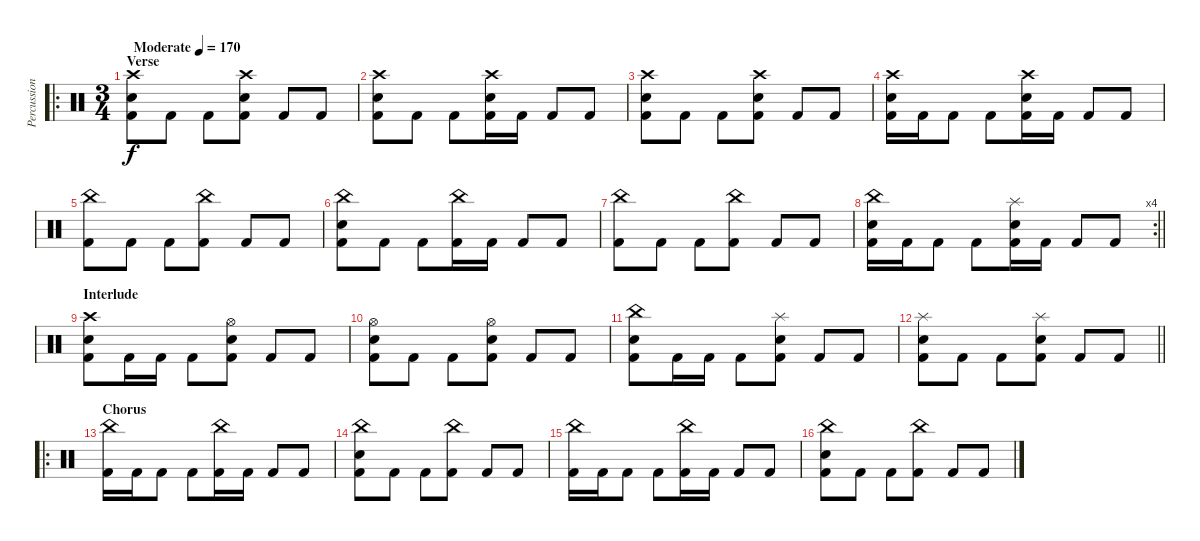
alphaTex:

\track ("Percussion" "Percussion") {instrument percussion}
\staff {score}
\articulation defaults
\ro
\ts (3 4)
\section ("" "Verse")
\tempo (170 "Moderate")
\clef neutral
\ks c
("Crash high (hit)" "Electric Snare (hit)" "Kick (hit) 2").8{dy f} "Kick (hit) 2".8 "Kick (hit) 2".8 ("Crash high (hit)" "Electric Snare (hit)" "Kick (hit) 2").8 "Kick (hit) 2".8 "Kick (hit) 2".8 |
("Crash high (hit)" "Electric Snare (hit)" "Kick (hit) 2").8 "Kick (hit) 2".8 "Kick (hit) 2".8 ("Crash high (hit)" "Electric Snare (hit)" "Kick (hit) 2").16 "Kick (hit) 2".16 "Kick (hit) 2".8 "Kick (hit) 2".8 |
("Crash high (hit)" "Electric Snare (hit)" "Kick (hit) 2").8 "Kick (hit) 2".8 "Kick (hit) 2".8 ("Crash high (hit)" "Electric Snare (hit)" "Kick (hit) 2").8 "Kick (hit) 2".8 "Kick (hit) 2".8 |
("Crash high (hit)" "Electric Snare (hit)" "Kick (hit) 2").16 "Kick (hit) 2".16 "Kick (hit) 2".8 "Kick (hit) 2".8 ("Crash high (hit)" "Electric Snare (hit)" "Kick (hit) 2").16 "Kick (hit) 2".16 "Kick (hit) 2".8 "Kick (hit) 2".8 |
("China (hit)" "Kick (hit) 2").8 "Kick (hit) 2".8 "Kick (hit) 2".8 ("China (hit)" "Kick (hit) 2").8 "Kick (hit) 2".8 "Kick (hit) 2".8 |
("China (hit)" "Electric Snare (hit)" "Kick (hit) 2").8 "Kick (hit) 2".8 "Kick (hit) 2".8 ("China (hit)" "Kick (hit) 2").16 "Kick (hit) 2".16 "Kick (hit) 2".8 "Kick (hit) 2".8 |
("China (hit)" "Kick (hit) 2").8 "Kick (hit) 2".8 "Kick (hit) 2".8 ("China (hit)" "Kick (hit) 2").8 "Kick (hit) 2".8 "Kick (hit) 2".8 |
\rc 4
\barLineRight lightlight
("China (hit)" "Electric Snare (hit)" "Kick (hit) 2").16 "Kick (hit) 2".16 "Kick (hit) 2".8 "Kick (hit) 2".8 ("Splash (hit)" "Electric Snare (hit)" "Kick (hit) 2").16 "Kick (hit) 2".16 "Kick (hit) 2".8 "Kick (hit) 2".8 |
\section ("" "Interlude")
("Crash high (hit)" "Electric Snare (hit)" "Kick (hit) 2").8 "Kick (hit) 2".16 "Kick (hit) 2".16 "Kick (hit) 2".8 ("Hi-Hat (open)" "Electric Snare (hit)" "Kick (hit) 2").8 "Kick (hit) 2".8 "Kick (hit) 2".8 |
("Hi-Hat (open)" "Electric Snare (hit)" "Kick (hit) 2").8 "Kick (hit) 2".8 "Kick (hit) 2".8 ("Hi-Hat (open)" "Electric Snare (hit)" "Kick (hit) 2").8 "Kick (hit) 2".8 "Kick (hit) 2".8 |
("China (hit)" "Electric Snare (hit)" "Kick (hit) 2").8 "Kick (hit) 2".16 "Kick (hit) 2".16 "Kick (hit) 2".8 ("Splash (hit)" "Electric Snare (hit)" "Kick (hit) 2").8 "Kick (hit) 2".8 "Kick (hit) 2".8 |
\barLineRight lightlight
("Splash (hit)" "Electric Snare (hit)" "Kick (hit) 2").8 "Kick (hit) 2".8 "Kick (hit) 2".8 ("Splash (hit)" "Electric Snare (hit)" "Kick (hit) 2").8 "Kick (hit) 2".8 "Kick (hit) 2".8 |
\ro
\section ("" "Chorus")
("China (hit)" "Kick (hit) 2").16 "Kick (hit) 2".16 "Kick (hit) 2".8 "Kick (hit) 2".8 ("China (hit)" "Kick (hit) 2").16 "Kick (hit) 2".16 "Kick (hit) 2".8 "Kick (hit) 2".8 |
("China (hit)" "Electric Snare (hit)" "Kick (hit) 2").8 "Kick (hit) 2".8 "Kick (hit) 2".8 ("China (hit)" "Kick (hit) 2").8 "Kick (hit) 2".8 "Kick (hit) 2".8 |
("China (hit)" "Kick (hit) 2").16 "Kick (hit) 2".16 "Kick (hit) 2".8 "Kick (hit) 2".8 ("China (hit)" "Kick (hit) 2").16 "Kick (hit) 2".16 "Kick (hit) 2".8 "Kick (hit) 2".8 |
("China (hit)" "Electric Snare (hit)" "Kick (hit) 2").8 "Kick (hit) 2".8 "Kick (hit) 2".8 ("China (hit)" "Kick (hit) 2").8 "Kick (hit) 2".8 "Kick (hit) 2".8
